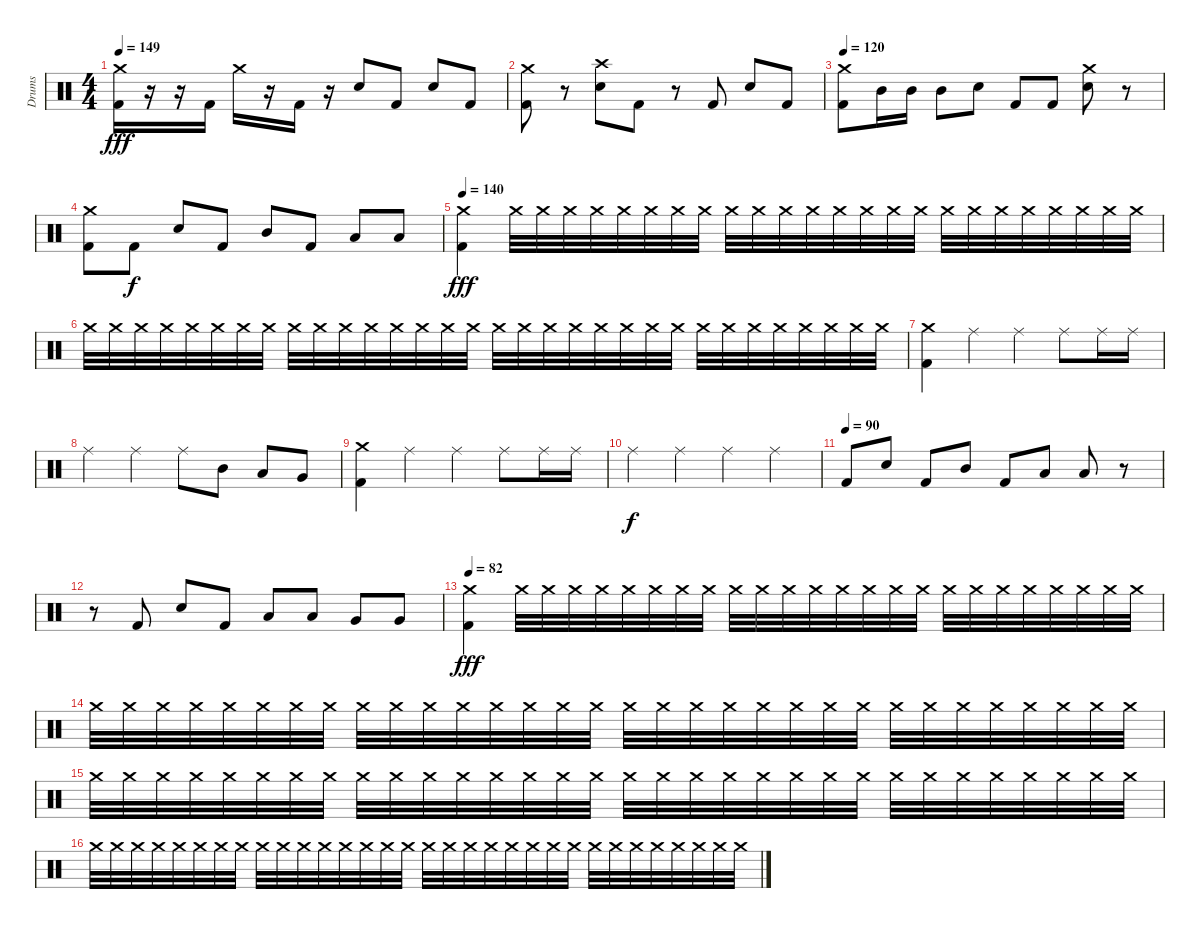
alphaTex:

\track ("Drums" "Drums") {instrument percussion}
\staff {score}
\articulation defaults
\ts (4 4)
\tempo 149
\clef neutral
\ks c
("Crash medium (hit)" "Kick (hit) 2").16{dy fff} r.16 r.16 "Kick (hit) 2".16 "Crash medium (hit)".16 r.16 "Kick (hit) 2".16 r.16 "Electric Snare (hit)".8 "Kick (hit) 2".8 "Electric Snare (hit)".8 "Kick (hit) 2".8 |
("Crash medium (hit)" "Kick (hit) 2").8 r.8 ("Crash high (hit)" "Electric Snare (hit)").8 "Kick (hit) 2".8 r.8 "Kick (hit) 2".8 "Electric Snare (hit)".8 "Kick (hit) 2".8 |
\tempo 120
("Crash medium (hit)" "Kick (hit) 2").8 "Mid Tom (hit)".16 "Mid Tom (hit)".16 "Mid Tom (hit)".8 "Electric Snare (hit)".8 "Kick (hit) 2".8 "Kick (hit) 2".8 ("Crash medium (hit)" "Electric Snare (hit)").8 r.8 |
("Crash medium (hit)" "Kick (hit) 2").8 "Kick (hit) 2".8{dy f} "Electric Snare (hit)".8 "Kick (hit) 2".8 "Mid Tom (hit)".8 "Kick (hit) 2".8 "Low Tom (hit)".8 "Low Tom (hit)".8 |
\tempo 140
("Crash medium (hit)" "Kick (hit) 2").4{dy fff} "Crash medium (hit)".32{volume 6} "Crash medium (hit)".32 "Crash medium (hit)".32 "Crash medium (hit)".32 "Crash medium (hit)".32 "Crash medium (hit)".32 "Crash medium (hit)".32 "Crash medium (hit)".32 "Crash medium (hit)".32{volume 8} "Crash medium (hit)".32 "Crash medium (hit)".32 "Crash medium (hit)".32 "Crash medium (hit)".32 "Crash medium (hit)".32 "Crash medium (hit)".32 "Crash medium (hit)".32 "Crash medium (hit)".32 "Crash medium (hit)".32 "Crash medium (hit)".32 "Crash medium (hit)".32 "Crash medium (hit)".32 "Crash medium (hit)".32 "Crash medium (hit)".32 "Crash medium (hit)".32 |
"Crash medium (hit)".32 "Crash medium (hit)".32 "Crash medium (hit)".32 "Crash medium (hit)".32 "Crash medium (hit)".32 "Crash medium (hit)".32 "Crash medium (hit)".32 "Crash medium (hit)".32 "Crash medium (hit)".32 "Crash medium (hit)".32 "Crash medium (hit)".32 "Crash medium (hit)".32 "Crash medium (hit)".32 "Crash medium (hit)".32 "Crash medium (hit)".32 "Crash medium (hit)".32 "Crash medium (hit)".32 "Crash medium (hit)".32 "Crash medium (hit)".32 "Crash medium (hit)".32 "Crash medium (hit)".32 "Crash medium (hit)".32 "Crash medium (hit)".32 "Crash medium (hit)".32 "Crash medium (hit)".32 "Crash medium (hit)".32 "Crash medium (hit)".32 "Crash medium (hit)".32 "Crash medium (hit)".32 "Crash medium (hit)".32 "Crash medium (hit)".32 "Crash medium (hit)".32 |
("Crash medium (hit)" "Kick (hit) 2").4{volume 16} "Ride (middle)".4 "Ride (middle)".4 "Ride (middle)".8 "Ride (middle)".16 "Ride (middle)".16 |
"Ride (middle)".4 "Ride (middle)".4 "Ride (middle)".8 "Mid Tom (hit)".8 "Low Tom (hit)".8 "Very Low Tom (hit)".8 |
("Crash medium (hit)" "Kick (hit) 2").4 "Ride (middle)".4 "Ride (middle)".4 "Ride (middle)".8 "Ride (middle)".16 "Ride (middle)".16 |
"Ride (middle)".4{dy f} "Ride (middle)".4 "Ride (middle)".4 "Ride (middle)".4 |
\tempo (90)
"Kick (hit) 2".8 "Electric Snare (hit)".8 "Kick (hit) 2".8 "Mid Tom (hit)".8 "Kick (hit) 2".8 "Low Tom (hit)".8 "Low Tom (hit)".8 r.8 |
r.8 "Kick (hit) 2".8 "Electric Snare (hit)".8 "Kick (hit) 2".8 "Low Tom (hit)".8 "Low Tom (hit)".8 "Very Low Tom (hit)".8 "Very Low Tom (hit)".8 |
\tempo 82
("Crash medium (hit)" "Kick (hit) 2").4{dy fff} "Crash medium (hit)".32{volume 4} "Crash medium (hit)".32 "Crash medium (hit)".32 "Crash medium (hit)".32 "Crash medium (hit)".32 "Crash medium (hit)".32 "Crash medium (hit)".32 "Crash medium (hit)".32 "Crash medium (hit)".32{volume 8} "Crash medium (hit)".32 "Crash medium (hit)".32 "Crash medium (hit)".32 "Crash medium (hit)".32 "Crash medium (hit)".32 "Crash medium (hit)".32 "Crash medium (hit)".32 "Crash medium (hit)".32 "Crash medium (hit)".32 "Crash medium (hit)".32 "Crash medium (hit)".32 "Crash medium (hit)".32 "Crash medium (hit)".32 "Crash medium (hit)".32 "Crash medium (hit)".32 |
"Crash medium (hit)".32 "Crash medium (hit)".32 "Crash medium (hit)".32 "Crash medium (hit)".32 "Crash medium (hit)".32 "Crash medium (hit)".32 "Crash medium (hit)".32 "Crash medium (hit)".32 "Crash medium (hit)".32 "Crash medium (hit)".32 "Crash medium (hit)".32 "Crash medium (hit)".32 "Crash medium (hit)".32 "Crash medium (hit)".32 "Crash medium (hit)".32 "Crash medium (hit)".32 "Crash medium (hit)".32 "Crash medium (hit)".32 "Crash medium (hit)".32 "Crash medium (hit)".32 "Crash medium (hit)".32 "Crash medium (hit)".32 "Crash medium (hit)".32 "Crash medium (hit)".32 "Crash medium (hit)".32 "Crash medium (hit)".32 "Crash medium (hit)".32 "Crash medium (hit)".32 "Crash medium (hit)".32 "Crash medium (hit)".32 "Crash medium (hit)".32 "Crash medium (hit)".32 |
"Crash medium (hit)".32{volume 4} "Crash medium (hit)".32 "Crash medium (hit)".32 "Crash medium (hit)".32 "Crash medium (hit)".32 "Crash medium (hit)".32 "Crash medium (hit)".32 "Crash medium (hit)".32 "Crash medium (hit)".32 "Crash medium (hit)".32 "Crash medium (hit)".32 "Crash medium (hit)".32 "Crash medium (hit)".32 "Crash medium (hit)".32 "Crash medium (hit)".32 "Crash medium (hit)".32 "Crash medium (hit)".32 "Crash medium (hit)".32 "Crash medium (hit)".32 "Crash medium (hit)".32 "Crash medium (hit)".32 "Crash medium (hit)".32 "Crash medium (hit)".32 "Crash medium (hit)".32 "Crash medium (hit)".32 "Crash medium (hit)".32 "Crash medium (hit)".32 "Crash medium (hit)".32 "Crash medium (hit)".32 "Crash medium (hit)".32 "Crash medium (hit)".32 "Crash medium (hit)".32 |
"Crash medium (hit)".32{volume 0} "Crash medium (hit)".32 "Crash medium (hit)".32 "Crash medium (hit)".32 "Crash medium (hit)".32 "Crash medium (hit)".32 "Crash medium (hit)".32 "Crash medium (hit)".32 "Crash medium (hit)".32 "Crash medium (hit)".32 "Crash medium (hit)".32 "Crash medium (hit)".32 "Crash medium (hit)".32 "Crash medium (hit)".32 "Crash medium (hit)".32 "Crash medium (hit)".32 "Crash medium (hit)".32 "Crash medium (hit)".32 "Crash medium (hit)".32 "Crash medium (hit)".32 "Crash medium (hit)".32 "Crash medium (hit)".32 "Crash medium (hit)".32 "Crash medium (hit)".32 "Crash medium (hit)".32 "Crash medium (hit)".32 "Crash medium (hit)".32 "Crash medium (hit)".32 "Crash medium (hit)".32 "Crash medium (hit)".32 "Crash medium (hit)".32 "Crash medium (hit)".32
